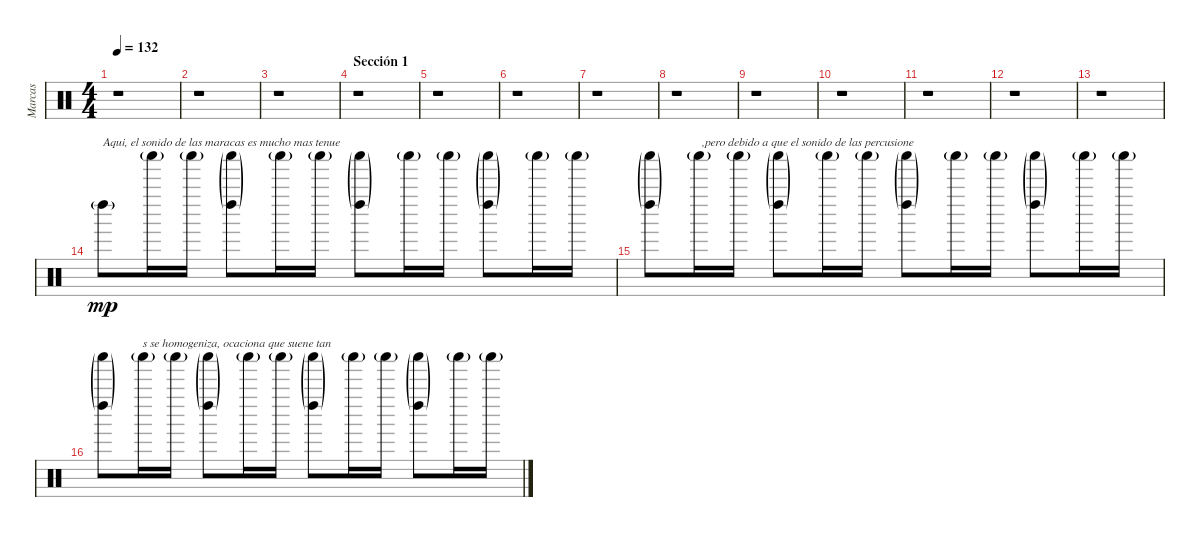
\track ("Marcas" "Marcas") {instrument percussion}
\staff {score}
\articulation defaults
\ts (4 4)
\tempo 132
\clef neutral
\ks c
r.1{dy mp} |
r.1 |
r.1 |
\section ("" "Sección 1")
r.1 |
r.1 |
r.1 |
r.1 |
r.1 |
r.1 |
r.1 |
r.1 |
r.1 |
r.1 |
"Left Maraca (hit)"{g}.8{txt "Aqui, el sonido de las maracas es mucho mas tenue" volume 13} "Shaker (hit)"{g}.16 "Shaker (hit)"{g}.16 ("Shaker (hit)"{g} "Left Maraca (hit)"{g}).8 "Shaker (hit)"{g}.16 "Shaker (hit)"{g}.16 ("Shaker (hit)"{g} "Left Maraca (hit)"{g}).8 "Shaker (hit)"{g}.16 "Shaker (hit)"{g}.16 ("Shaker (hit)"{g} "Left Maraca (hit)"{g}).8 "Shaker (hit)"{g}.16 "Shaker (hit)"{g}.16 |
("Shaker (hit)"{g} "Left Maraca (hit)"{g}).8 "Shaker (hit)"{g}.16{txt " ,pero debido a que el sonido de las percusione"} "Shaker (hit)"{g}.16 ("Shaker (hit)"{g} "Left Maraca (hit)"{g}).8 "Shaker (hit)"{g}.16 "Shaker (hit)"{g}.16 ("Shaker (hit)"{g} "Left Maraca (hit)"{g}).8 "Shaker (hit)"{g}.16 "Shaker (hit)"{g}.16 ("Shaker (hit)"{g} "Left Maraca (hit)"{g}).8 "Shaker (hit)"{g}.16 "Shaker (hit)"{g}.16 |
("Shaker (hit)"{g} "Left Maraca (hit)"{g}).8 "Shaker (hit)"{g}.16{txt "s se homogeniza, ocaciona que suene tan "} "Shaker (hit)"{g}.16 ("Shaker (hit)"{g} "Left Maraca (hit)"{g}).8 "Shaker (hit)"{g}.16 "Shaker (hit)"{g}.16 ("Shaker (hit)"{g} "Left Maraca (hit)"{g}).8 "Shaker (hit)"{g}.16 "Shaker (hit)"{g}.16 ("Shaker (hit)"{g} "Left Maraca (hit)"{g}).8 "Shaker (hit)"{g}.16 "Shaker (hit)"{g}.16
